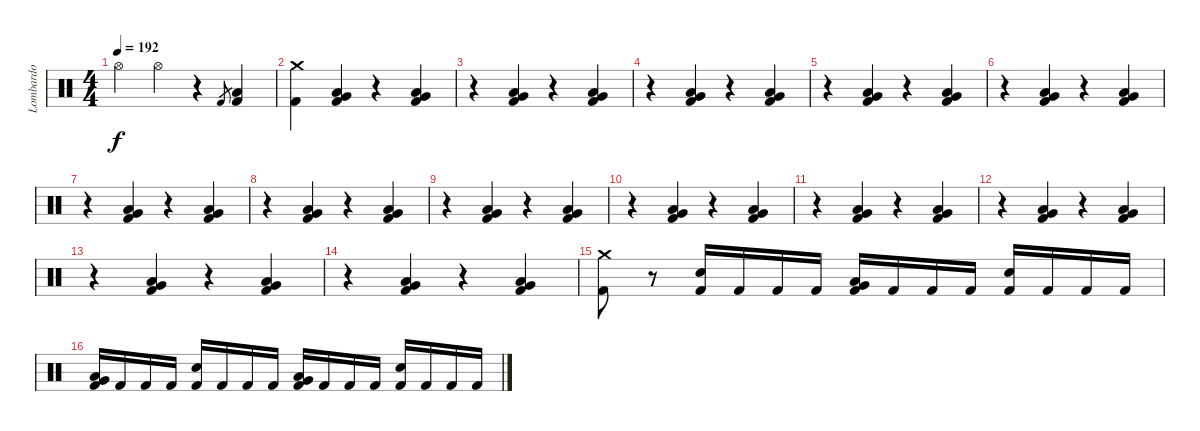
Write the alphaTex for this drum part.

\track ("Lombardo" "Lombardo") {instrument percussion}
\staff {score}
\articulation defaults
\ts (4 4)
\tempo 192
\tempo 109
\tempo 110
\tempo 192
\clef neutral
\ks c "Hi-Hat (open)".4{dy f} "Hi-Hat (open)".4
r.4 "Kick (hit) 2".8{gr} ("Low Floor Tom (hit)" "Kick (hit) 2").4 |
("Crash medium (hit)" "Kick (hit) 2").4 ("Very Low Tom (hit)" "Low Floor Tom (hit)" "Kick (hit) 2").4 r.4 ("Very Low Tom (hit)" "Low Floor Tom (hit)" "Kick (hit) 2").4 |
r.4 ("Very Low Tom (hit)" "Low Floor Tom (hit)" "Kick (hit) 2").4 r.4 ("Very Low Tom (hit)" "Low Floor Tom (hit)" "Kick (hit) 2").4 |
r.4 ("Very Low Tom (hit)" "Low Floor Tom (hit)" "Kick (hit) 2").4 r.4 ("Very Low Tom (hit)" "Low Floor Tom (hit)" "Kick (hit) 2").4 |
r.4 ("Very Low Tom (hit)" "Low Floor Tom (hit)" "Kick (hit) 2").4 r.4 ("Very Low Tom (hit)" "Low Floor Tom (hit)" "Kick (hit) 2").4 |
r.4 ("Very Low Tom (hit)" "Low Floor Tom (hit)" "Kick (hit) 2").4 r.4 ("Very Low Tom (hit)" "Low Floor Tom (hit)" "Kick (hit) 2").4 |
r.4 ("Very Low Tom (hit)" "Low Floor Tom (hit)" "Kick (hit) 2").4 r.4 ("Very Low Tom (hit)" "Low Floor Tom (hit)" "Kick (hit) 2").4 |
r.4 ("Very Low Tom (hit)" "Low Floor Tom (hit)" "Kick (hit) 2").4 r.4 ("Very Low Tom (hit)" "Low Floor Tom (hit)" "Kick (hit) 2").4 |
r.4 ("Very Low Tom (hit)" "Low Floor Tom (hit)" "Kick (hit) 2").4 r.4 ("Very Low Tom (hit)" "Low Floor Tom (hit)" "Kick (hit) 2").4 |
r.4 ("Very Low Tom (hit)" "Low Floor Tom (hit)" "Kick (hit) 2").4 r.4 ("Very Low Tom (hit)" "Low Floor Tom (hit)" "Kick (hit) 2").4 |
r.4 ("Very Low Tom (hit)" "Low Floor Tom (hit)" "Kick (hit) 2").4 r.4 ("Very Low Tom (hit)" "Low Floor Tom (hit)" "Kick (hit) 2").4 |
r.4 ("Very Low Tom (hit)" "Low Floor Tom (hit)" "Kick (hit) 2").4 r.4 ("Very Low Tom (hit)" "Low Floor Tom (hit)" "Kick (hit) 2").4 |
r.4 ("Very Low Tom (hit)" "Low Floor Tom (hit)" "Kick (hit) 2").4 r.4 ("Very Low Tom (hit)" "Low Floor Tom (hit)" "Kick (hit) 2").4 |
r.4 ("Very Low Tom (hit)" "Low Floor Tom (hit)" "Kick (hit) 2").4 r.4 ("Very Low Tom (hit)" "Low Floor Tom (hit)" "Kick (hit) 2").4 |
("Crash medium (hit)" "Kick (hit) 2").8 r.8 ("Snare (hit) 2" "Kick (hit) 2").16 "Kick (hit) 2".16 "Kick (hit) 2".16 "Kick (hit) 2".16 ("Very Low Tom (hit)" "Low Floor Tom (hit)" "Kick (hit) 2").16 "Kick (hit) 2".16 "Kick (hit) 2".16 "Kick (hit) 2".16 ("Snare (hit) 2" "Kick (hit) 2").16 "Kick (hit) 2".16 "Kick (hit) 2".16 "Kick (hit) 2".16 |
("Very Low Tom (hit)" "Low Floor Tom (hit)" "Kick (hit) 2").16 "Kick (hit) 2".16 "Kick (hit) 2".16 "Kick (hit) 2".16 ("Snare (hit) 2" "Kick (hit) 2").16 "Kick (hit) 2".16 "Kick (hit) 2".16 "Kick (hit) 2".16 ("Very Low Tom (hit)" "Low Floor Tom (hit)" "Kick (hit) 2").16 "Kick (hit) 2".16 "Kick (hit) 2".16 "Kick (hit) 2".16 ("Snare (hit) 2" "Kick (hit) 2").16 "Kick (hit) 2".16 "Kick (hit) 2".16 "Kick (hit) 2".16
